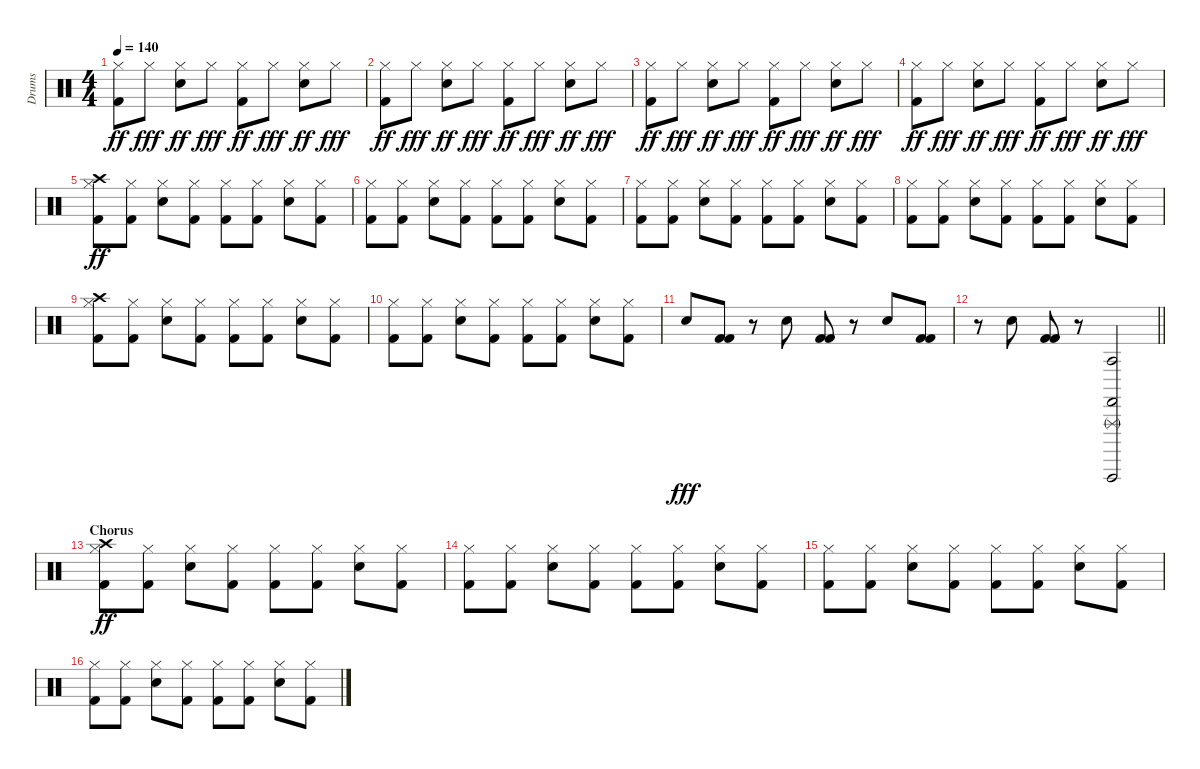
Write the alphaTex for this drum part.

\track ("Drums" "Drums") {instrument percussion}
\staff {score}
\articulation defaults
\ts (4 4)
\tempo 140
\clef neutral
\ks c
("Hi-Hat (closed)" "Kick (hit) 2").8{dy ff} "Hi-Hat (closed)".8{dy fff} ("Hi-Hat (closed)" "Snare (hit) 2").8{dy ff} "Hi-Hat (closed)".8{dy fff} ("Hi-Hat (closed)" "Kick (hit) 2").8{dy ff} "Hi-Hat (closed)".8{dy fff} ("Hi-Hat (closed)" "Snare (hit) 2").8{dy ff} "Hi-Hat (closed)".8{dy fff} |
("Hi-Hat (closed)" "Kick (hit) 2").8{dy ff} "Hi-Hat (closed)".8{dy fff} ("Hi-Hat (closed)" "Snare (hit) 2").8{dy ff} "Hi-Hat (closed)".8{dy fff} ("Hi-Hat (closed)" "Kick (hit) 2").8{dy ff} "Hi-Hat (closed)".8{dy fff} ("Hi-Hat (closed)" "Snare (hit) 2").8{dy ff} "Hi-Hat (closed)".8{dy fff} |
("Hi-Hat (closed)" "Kick (hit) 2").8{dy ff} "Hi-Hat (closed)".8{dy fff} ("Hi-Hat (closed)" "Snare (hit) 2").8{dy ff} "Hi-Hat (closed)".8{dy fff} ("Hi-Hat (closed)" "Kick (hit) 2").8{dy ff} "Hi-Hat (closed)".8{dy fff} ("Hi-Hat (closed)" "Snare (hit) 2").8{dy ff} "Hi-Hat (closed)".8{dy fff} |
("Hi-Hat (closed)" "Kick (hit) 2").8{dy ff} "Hi-Hat (closed)".8{dy fff} ("Hi-Hat (closed)" "Snare (hit) 2").8{dy ff} "Hi-Hat (closed)".8{dy fff} ("Hi-Hat (closed)" "Kick (hit) 2").8{dy ff} "Hi-Hat (closed)".8{dy fff} ("Hi-Hat (closed)" "Snare (hit) 2").8{dy ff} "Hi-Hat (closed)".8{dy fff} |
("Crash high (hit)" "Hi-Hat (closed)" "Kick (hit) 2").8{dy ff} ("Hi-Hat (closed)" "Kick (hit) 2").8 ("Hi-Hat (closed)" "Snare (hit) 2").8 ("Hi-Hat (closed)" "Kick (hit) 2").8 ("Hi-Hat (closed)" "Kick (hit) 2").8 ("Hi-Hat (closed)" "Kick (hit) 2").8 ("Hi-Hat (closed)" "Snare (hit) 2").8 ("Hi-Hat (closed)" "Kick (hit) 2").8 |
("Hi-Hat (closed)" "Kick (hit) 2").8 ("Hi-Hat (closed)" "Kick (hit) 2").8 ("Hi-Hat (closed)" "Snare (hit) 2").8 ("Hi-Hat (closed)" "Kick (hit) 2").8 ("Hi-Hat (closed)" "Kick (hit) 2").8 ("Hi-Hat (closed)" "Kick (hit) 2").8 ("Hi-Hat (closed)" "Snare (hit) 2").8 ("Hi-Hat (closed)" "Kick (hit) 2").8 |
("Hi-Hat (closed)" "Kick (hit) 2").8 ("Hi-Hat (closed)" "Kick (hit) 2").8 ("Hi-Hat (closed)" "Snare (hit) 2").8 ("Hi-Hat (closed)" "Kick (hit) 2").8 ("Hi-Hat (closed)" "Kick (hit) 2").8 ("Hi-Hat (closed)" "Kick (hit) 2").8 ("Hi-Hat (closed)" "Snare (hit) 2").8 ("Hi-Hat (closed)" "Kick (hit) 2").8 |
("Hi-Hat (closed)" "Kick (hit) 2").8 ("Hi-Hat (closed)" "Kick (hit) 2").8 ("Hi-Hat (closed)" "Snare (hit) 2").8 ("Hi-Hat (closed)" "Kick (hit) 2").8 ("Hi-Hat (closed)" "Kick (hit) 2").8 ("Hi-Hat (closed)" "Kick (hit) 2").8 ("Hi-Hat (closed)" "Snare (hit) 2").8 ("Hi-Hat (closed)" "Kick (hit) 2").8 |
("Crash high (hit)" "Hi-Hat (closed)" "Kick (hit) 2").8 ("Hi-Hat (closed)" "Kick (hit) 2").8 ("Hi-Hat (closed)" "Snare (hit) 2").8 ("Hi-Hat (closed)" "Kick (hit) 2").8 ("Hi-Hat (closed)" "Kick (hit) 2").8 ("Hi-Hat (closed)" "Kick (hit) 2").8 ("Hi-Hat (closed)" "Snare (hit) 2").8 ("Hi-Hat (closed)" "Kick (hit) 2").8 |
("Hi-Hat (closed)" "Kick (hit) 2").8 ("Hi-Hat (closed)" "Kick (hit) 2").8 ("Hi-Hat (closed)" "Snare (hit) 2").8 ("Hi-Hat (closed)" "Kick (hit) 2").8 ("Hi-Hat (closed)" "Kick (hit) 2").8 ("Hi-Hat (closed)" "Kick (hit) 2").8 ("Hi-Hat (closed)" "Snare (hit) 2").8 ("Hi-Hat (closed)" "Kick (hit) 2").8 |
"Snare (hit) 2".8{dy fff volume 16} ("Kick (hit) 2" "Kick (hit) 2").8 r.8 "Snare (hit) 2".8 ("Kick (hit) 2" "Kick (hit) 2").8 r.8 "Snare (hit) 2".8 ("Kick (hit) 2" "Kick (hit) 2").8 |
\barLineRight lightlight
r.8 "Snare (hit) 2".8 ("Kick (hit) 2" "Kick (hit) 2").8 r.8 ("Castanets (hit)" "Triangle (rnute)" "Agogo tow (hit)" "Guiro (hit)").2 |
\section ("" "Chorus ")
("Crash high (hit)" "Hi-Hat (closed)" "Kick (hit) 2").8{dy ff volume 12} ("Hi-Hat (closed)" "Kick (hit) 2").8 ("Hi-Hat (closed)" "Snare (hit) 2").8 ("Hi-Hat (closed)" "Kick (hit) 2").8 ("Hi-Hat (closed)" "Kick (hit) 2").8 ("Hi-Hat (closed)" "Kick (hit) 2").8 ("Hi-Hat (closed)" "Snare (hit) 2").8 ("Hi-Hat (closed)" "Kick (hit) 2").8 |
("Hi-Hat (closed)" "Kick (hit) 2").8 ("Hi-Hat (closed)" "Kick (hit) 2").8 ("Hi-Hat (closed)" "Snare (hit) 2").8 ("Hi-Hat (closed)" "Kick (hit) 2").8 ("Hi-Hat (closed)" "Kick (hit) 2").8 ("Hi-Hat (closed)" "Kick (hit) 2").8 ("Hi-Hat (closed)" "Snare (hit) 2").8 ("Hi-Hat (closed)" "Kick (hit) 2").8 |
("Hi-Hat (closed)" "Kick (hit) 2").8 ("Hi-Hat (closed)" "Kick (hit) 2").8 ("Hi-Hat (closed)" "Snare (hit) 2").8 ("Hi-Hat (closed)" "Kick (hit) 2").8 ("Hi-Hat (closed)" "Kick (hit) 2").8 ("Hi-Hat (closed)" "Kick (hit) 2").8 ("Hi-Hat (closed)" "Snare (hit) 2").8 ("Hi-Hat (closed)" "Kick (hit) 2").8 |
("Hi-Hat (closed)" "Kick (hit) 2").8 ("Hi-Hat (closed)" "Kick (hit) 2").8 ("Hi-Hat (closed)" "Snare (hit) 2").8 ("Hi-Hat (closed)" "Kick (hit) 2").8 ("Hi-Hat (closed)" "Kick (hit) 2").8 ("Hi-Hat (closed)" "Kick (hit) 2").8 ("Hi-Hat (closed)" "Snare (hit) 2").8 ("Hi-Hat (closed)" "Kick (hit) 2").8
